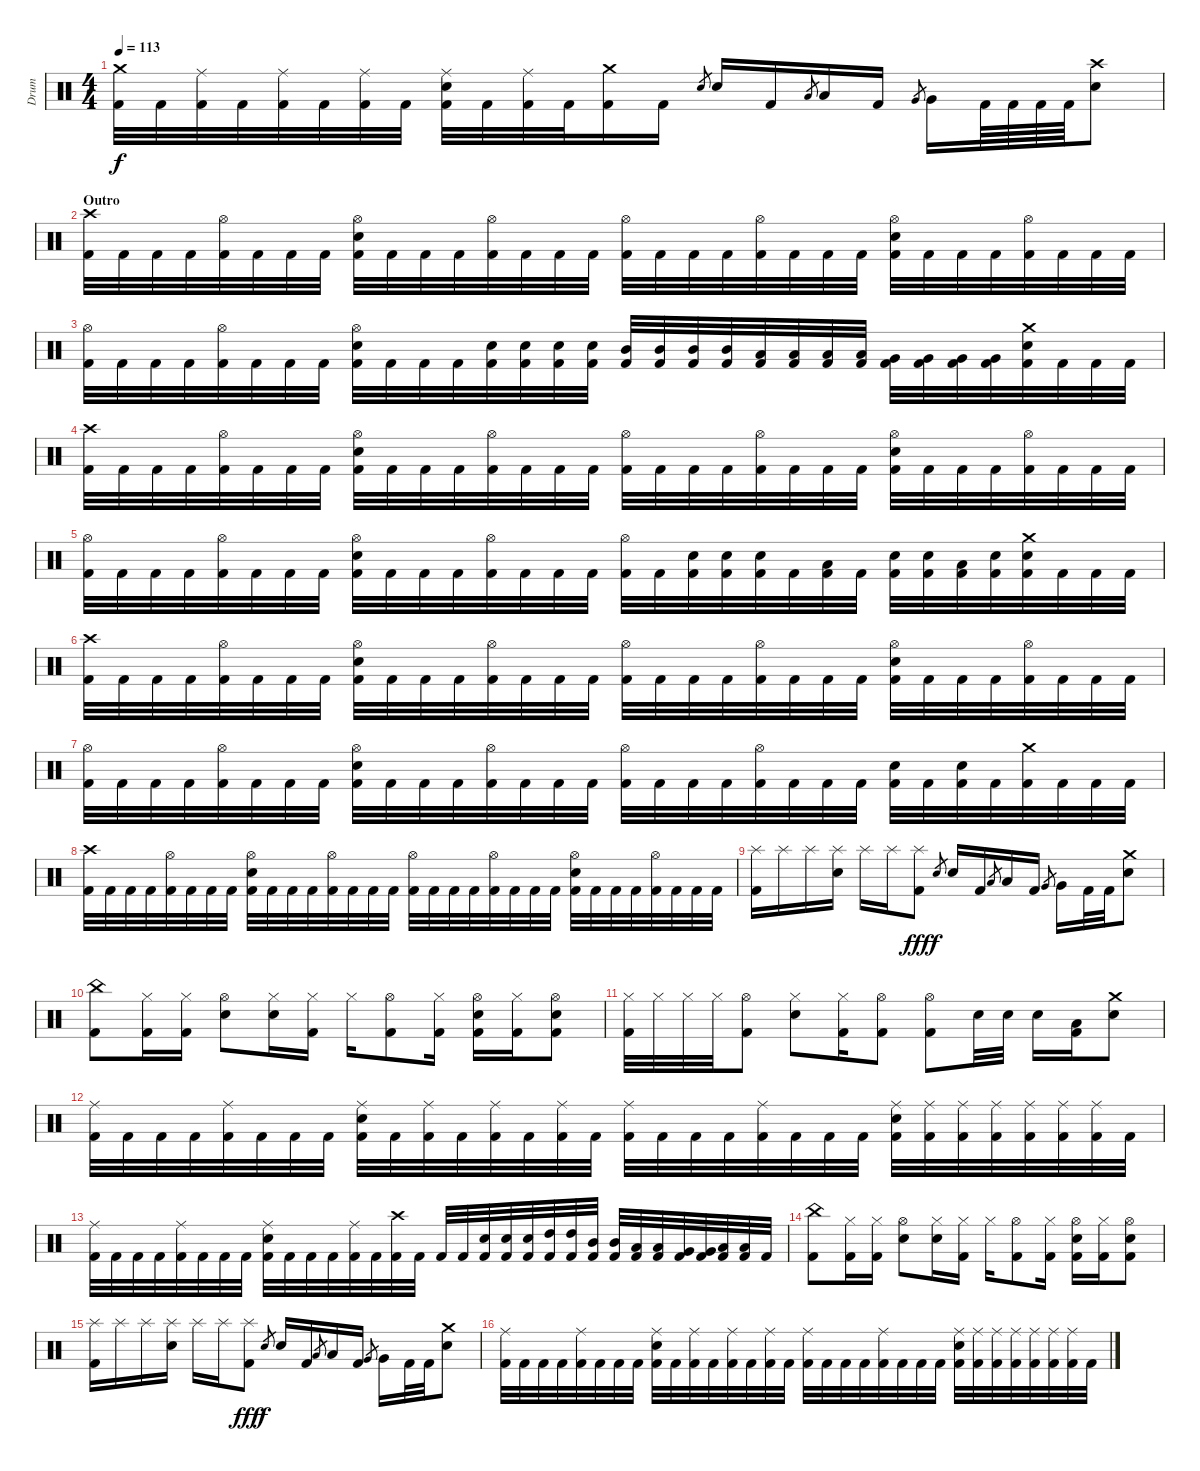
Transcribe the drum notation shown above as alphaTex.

\track ("Drum" "Drum") {instrument percussion}
\staff {score}
\articulation defaults
\ts (4 4)
\tempo 113
\clef neutral
\ks c
("Crash medium (hit)" "Kick (hit) 2").32{dy f} "Kick (hit) 2".32 ("Ride (middle)" "Kick (hit) 2").32 "Kick (hit) 2".32 ("Ride (middle)" "Kick (hit) 2").32 "Kick (hit) 2".32 ("Ride (middle)" "Kick (hit) 2").32 "Kick (hit) 2".32 ("Ride (middle)" "Electric Snare (hit)" "Kick (hit) 2").32 "Kick (hit) 2".32 ("Ride (middle)" "Kick (hit) 2").32 "Kick (hit) 2".32 ("Crash medium (hit)" "Kick (hit) 2").16 "Kick (hit) 2".16 "Electric Snare (hit)".8{gr} "Electric Snare (hit)".16 "Kick (hit) 2".16 "Low Tom (hit)".8{gr} "Low Tom (hit)".16 "Kick (hit) 2".16 "Very Low Tom (hit)".8{gr} "Very Low Tom (hit)".16 "Kick (hit) 2".64 "Kick (hit) 2".64 "Kick (hit) 2".64 "Kick (hit) 2".64 ("Crash high (hit)" "Electric Snare (hit)").8 |
\section ("" "Outro")
("Crash high (hit)" "Kick (hit) 2").32 "Kick (hit) 2".32 "Kick (hit) 2".32 "Kick (hit) 2".32 ("Hi-Hat (open)" "Kick (hit) 2").32 "Kick (hit) 2".32 "Kick (hit) 2".32 "Kick (hit) 2".32 ("Hi-Hat (open)" "Electric Snare (hit)" "Kick (hit) 2").32 "Kick (hit) 2".32 "Kick (hit) 2".32 "Kick (hit) 2".32 ("Hi-Hat (open)" "Kick (hit) 2").32 "Kick (hit) 2".32 "Kick (hit) 2".32 "Kick (hit) 2".32 ("Hi-Hat (open)" "Kick (hit) 2").32 "Kick (hit) 2".32 "Kick (hit) 2".32 "Kick (hit) 2".32 ("Hi-Hat (open)" "Kick (hit) 2").32 "Kick (hit) 2".32 "Kick (hit) 2".32 "Kick (hit) 2".32 ("Hi-Hat (open)" "Electric Snare (hit)" "Kick (hit) 2").32 "Kick (hit) 2".32 "Kick (hit) 2".32 "Kick (hit) 2".32 ("Hi-Hat (open)" "Kick (hit) 2").32 "Kick (hit) 2".32 "Kick (hit) 2".32 "Kick (hit) 2".32 |
("Hi-Hat (open)" "Kick (hit) 2").32 "Kick (hit) 2".32 "Kick (hit) 2".32 "Kick (hit) 2".32 ("Hi-Hat (open)" "Kick (hit) 2").32 "Kick (hit) 2".32 "Kick (hit) 2".32 "Kick (hit) 2".32 ("Hi-Hat (open)" "Electric Snare (hit)" "Kick (hit) 2").32 "Kick (hit) 2".32 "Kick (hit) 2".32 "Kick (hit) 2".32 ("Electric Snare (hit)" "Kick (hit) 2").32 ("Electric Snare (hit)" "Kick (hit) 2").32 ("Electric Snare (hit)" "Kick (hit) 2").32 ("Electric Snare (hit)" "Kick (hit) 2").32 ("Mid Tom (hit)" "Kick (hit) 2").32 ("Mid Tom (hit)" "Kick (hit) 2").32 ("Mid Tom (hit)" "Kick (hit) 2").32 ("Mid Tom (hit)" "Kick (hit) 2").32 ("Low Tom (hit)" "Kick (hit) 2").32 ("Low Tom (hit)" "Kick (hit) 2").32 ("Low Tom (hit)" "Kick (hit) 2").32 ("Low Tom (hit)" "Kick (hit) 2").32 ("Very Low Tom (hit)" "Kick (hit) 2").32 ("Very Low Tom (hit)" "Kick (hit) 2").32 ("Very Low Tom (hit)" "Kick (hit) 2").32 ("Very Low Tom (hit)" "Kick (hit) 2").32 ("Crash medium (hit)" "Electric Snare (hit)" "Kick (hit) 2").32 "Kick (hit) 2".32 "Kick (hit) 2".32 "Kick (hit) 2".32 |
("Crash high (hit)" "Kick (hit) 2").32 "Kick (hit) 2".32 "Kick (hit) 2".32 "Kick (hit) 2".32 ("Hi-Hat (open)" "Kick (hit) 2").32 "Kick (hit) 2".32 "Kick (hit) 2".32 "Kick (hit) 2".32 ("Hi-Hat (open)" "Electric Snare (hit)" "Kick (hit) 2").32 "Kick (hit) 2".32 "Kick (hit) 2".32 "Kick (hit) 2".32 ("Hi-Hat (open)" "Kick (hit) 2").32 "Kick (hit) 2".32 "Kick (hit) 2".32 "Kick (hit) 2".32 ("Hi-Hat (open)" "Kick (hit) 2").32 "Kick (hit) 2".32 "Kick (hit) 2".32 "Kick (hit) 2".32 ("Hi-Hat (open)" "Kick (hit) 2").32 "Kick (hit) 2".32 "Kick (hit) 2".32 "Kick (hit) 2".32 ("Hi-Hat (open)" "Electric Snare (hit)" "Kick (hit) 2").32 "Kick (hit) 2".32 "Kick (hit) 2".32 "Kick (hit) 2".32 ("Hi-Hat (open)" "Kick (hit) 2").32 "Kick (hit) 2".32 "Kick (hit) 2".32 "Kick (hit) 2".32 |
("Hi-Hat (open)" "Kick (hit) 2").32 "Kick (hit) 2".32 "Kick (hit) 2".32 "Kick (hit) 2".32 ("Hi-Hat (open)" "Kick (hit) 2").32 "Kick (hit) 2".32 "Kick (hit) 2".32 "Kick (hit) 2".32 ("Hi-Hat (open)" "Electric Snare (hit)" "Kick (hit) 2").32 "Kick (hit) 2".32 "Kick (hit) 2".32 "Kick (hit) 2".32 ("Hi-Hat (open)" "Kick (hit) 2").32 "Kick (hit) 2".32 "Kick (hit) 2".32 "Kick (hit) 2".32 ("Hi-Hat (open)" "Kick (hit) 2").32 "Kick (hit) 2".32 ("Electric Snare (hit)" "Kick (hit) 2").32 ("Electric Snare (hit)" "Kick (hit) 2").32 ("Electric Snare (hit)" "Kick (hit) 2").32 "Kick (hit) 2".32 ("Low Tom (hit)" "Kick (hit) 2").32 "Kick (hit) 2".32 ("Electric Snare (hit)" "Kick (hit) 2").32 ("Electric Snare (hit)" "Kick (hit) 2").32 ("Low Tom (hit)" "Kick (hit) 2").32 ("Electric Snare (hit)" "Kick (hit) 2").32 ("Crash medium (hit)" "Electric Snare (hit)" "Kick (hit) 2").32 "Kick (hit) 2".32 "Kick (hit) 2".32 "Kick (hit) 2".32 |
("Crash high (hit)" "Kick (hit) 2").32 "Kick (hit) 2".32 "Kick (hit) 2".32 "Kick (hit) 2".32 ("Hi-Hat (open)" "Kick (hit) 2").32 "Kick (hit) 2".32 "Kick (hit) 2".32 "Kick (hit) 2".32 ("Hi-Hat (open)" "Electric Snare (hit)" "Kick (hit) 2").32 "Kick (hit) 2".32 "Kick (hit) 2".32 "Kick (hit) 2".32 ("Hi-Hat (open)" "Kick (hit) 2").32 "Kick (hit) 2".32 "Kick (hit) 2".32 "Kick (hit) 2".32 ("Hi-Hat (open)" "Kick (hit) 2").32 "Kick (hit) 2".32 "Kick (hit) 2".32 "Kick (hit) 2".32 ("Hi-Hat (open)" "Kick (hit) 2").32 "Kick (hit) 2".32 "Kick (hit) 2".32 "Kick (hit) 2".32 ("Hi-Hat (open)" "Electric Snare (hit)" "Kick (hit) 2").32 "Kick (hit) 2".32 "Kick (hit) 2".32 "Kick (hit) 2".32 ("Hi-Hat (open)" "Kick (hit) 2").32 "Kick (hit) 2".32 "Kick (hit) 2".32 "Kick (hit) 2".32 |
("Hi-Hat (open)" "Kick (hit) 2").32 "Kick (hit) 2".32 "Kick (hit) 2".32 "Kick (hit) 2".32 ("Hi-Hat (open)" "Kick (hit) 2").32 "Kick (hit) 2".32 "Kick (hit) 2".32 "Kick (hit) 2".32 ("Hi-Hat (open)" "Electric Snare (hit)" "Kick (hit) 2").32 "Kick (hit) 2".32 "Kick (hit) 2".32 "Kick (hit) 2".32 ("Hi-Hat (open)" "Kick (hit) 2").32 "Kick (hit) 2".32 "Kick (hit) 2".32 "Kick (hit) 2".32 ("Hi-Hat (open)" "Kick (hit) 2").32 "Kick (hit) 2".32 "Kick (hit) 2".32 "Kick (hit) 2".32 ("Hi-Hat (open)" "Kick (hit) 2").32 "Kick (hit) 2".32 "Kick (hit) 2".32 "Kick (hit) 2".32 ("Electric Snare (hit)" "Kick (hit) 2").32 "Kick (hit) 2".32 ("Electric Snare (hit)" "Kick (hit) 2").32 "Kick (hit) 2".32 ("Crash medium (hit)" "Kick (hit) 2").32 "Kick (hit) 2".32 "Kick (hit) 2".32 "Kick (hit) 2".32 |
("Crash high (hit)" "Kick (hit) 2").32 "Kick (hit) 2".32 "Kick (hit) 2".32 "Kick (hit) 2".32 ("Hi-Hat (open)" "Kick (hit) 2").32 "Kick (hit) 2".32 "Kick (hit) 2".32 "Kick (hit) 2".32 ("Hi-Hat (open)" "Electric Snare (hit)" "Kick (hit) 2").32 "Kick (hit) 2".32 "Kick (hit) 2".32 "Kick (hit) 2".32 ("Hi-Hat (open)" "Kick (hit) 2").32 "Kick (hit) 2".32 "Kick (hit) 2".32 "Kick (hit) 2".32 ("Hi-Hat (open)" "Kick (hit) 2").32 "Kick (hit) 2".32 "Kick (hit) 2".32 "Kick (hit) 2".32 ("Hi-Hat (open)" "Kick (hit) 2").32 "Kick (hit) 2".32 "Kick (hit) 2".32 "Kick (hit) 2".32 ("Hi-Hat (open)" "Electric Snare (hit)" "Kick (hit) 2").32 "Kick (hit) 2".32 "Kick (hit) 2".32 "Kick (hit) 2".32 ("Hi-Hat (open)" "Kick (hit) 2").32 "Kick (hit) 2".32 "Kick (hit) 2".32 "Kick (hit) 2".32 |
("Splash (hit)" "Kick (hit) 2").16 "Splash (hit)".16 "Splash (hit)".16 ("Splash (hit)" "Electric Snare (hit)").16 "Splash (hit)".16 "Splash (hit)".16 ("Splash (hit)" "Kick (hit) 2").8{dy fff} "Electric Snare (hit)".8{gr dy f} "Electric Snare (hit)".16 "Kick (hit) 2".16 "Low Tom (hit)".8{gr} "Low Tom (hit)".16 "Kick (hit) 2".16 "Very Low Tom (hit)".8{gr} "Very Low Tom (hit)".16 "Kick (hit) 2".32 "Kick (hit) 2".32 ("Crash medium (hit)" "Electric Snare (hit)").8 |
("China (hit)" "Kick (hit) 2").8 ("Hi-Hat (closed)" "Kick (hit) 2").16 ("Hi-Hat (closed)" "Kick (hit) 2").16 ("Hi-Hat (open)" "Electric Snare (hit)").8 ("Hi-Hat (closed)" "Electric Snare (hit)").16 ("Hi-Hat (closed)" "Kick (hit) 2").16 "Hi-Hat (closed)".16 ("Hi-Hat (open)" "Kick (hit) 2").8 ("Hi-Hat (closed)" "Kick (hit) 2").16 ("Hi-Hat (open)" "Electric Snare (hit)" "Kick (hit) 2").16 ("Hi-Hat (closed)" "Kick (hit) 2").16 ("Hi-Hat (open)" "Electric Snare (hit)" "Kick (hit) 2").8 |
("Hi-Hat (closed)" "Kick (hit) 2").32 "Hi-Hat (closed)".32 "Hi-Hat (closed)".32 "Hi-Hat (closed)".32 ("Hi-Hat (open)" "Kick (hit) 2").8 ("Hi-Hat (closed)" "Electric Snare (hit)").8 ("Hi-Hat (closed)" "Kick (hit) 2").16 ("Hi-Hat (open)" "Kick (hit) 2").8 ("Hi-Hat (open)" "Kick (hit) 2").8 "Electric Snare (hit)".32 "Electric Snare (hit)".32 "Electric Snare (hit)".16 ("Low Tom (hit)" "Kick (hit) 2").16 ("Crash medium (hit)" "Electric Snare (hit)").8 |
("Ride (middle)" "Kick (hit) 2").32 "Kick (hit) 2".32 "Kick (hit) 2".32 "Kick (hit) 2".32 ("Ride (middle)" "Kick (hit) 2").32 "Kick (hit) 2".32 "Kick (hit) 2".32 "Kick (hit) 2".32 ("Ride (middle)" "Electric Snare (hit)" "Kick (hit) 2").32 "Kick (hit) 2".32 ("Ride (middle)" "Kick (hit) 2").32 "Kick (hit) 2".32 ("Ride (middle)" "Kick (hit) 2").32 "Kick (hit) 2".32 ("Ride (middle)" "Kick (hit) 2").32 "Kick (hit) 2".32 ("Ride (middle)" "Kick (hit) 2").32 "Kick (hit) 2".32 "Kick (hit) 2".32 "Kick (hit) 2".32 ("Ride (middle)" "Kick (hit) 2").32 "Kick (hit) 2".32 "Kick (hit) 2".32 "Kick (hit) 2".32 ("Ride (middle)" "Electric Snare (hit)" "Kick (hit) 2").32 ("Ride (middle)" "Kick (hit) 2").32 ("Ride (middle)" "Kick (hit) 2").32 ("Ride (middle)" "Kick (hit) 2").32 ("Ride (middle)" "Kick (hit) 2").32 ("Ride (middle)" "Kick (hit) 2").32 ("Ride (middle)" "Kick (hit) 2").32 "Kick (hit) 2".32 |
("Ride (middle)" "Kick (hit) 2").32 "Kick (hit) 2".32 "Kick (hit) 2".32 "Kick (hit) 2".32 ("Ride (middle)" "Kick (hit) 2").32 "Kick (hit) 2".32 "Kick (hit) 2".32 "Kick (hit) 2".32 ("Ride (middle)" "Electric Snare (hit)" "Kick (hit) 2").32 "Kick (hit) 2".32 "Kick (hit) 2".32 "Kick (hit) 2".32 ("Ride (middle)" "Kick (hit) 2").32 "Kick (hit) 2".32 ("Crash high (hit)" "Kick (hit) 2").32 "Kick (hit) 2".32 "Kick (hit) 2".32 "Kick (hit) 2".32 ("Electric Snare (hit)" "Kick (hit) 2").32 ("Electric Snare (hit)" "Kick (hit) 2").32 ("Electric Snare (hit)" "Kick (hit) 2").32 ("High Tom (hit)" "Kick (hit) 2").32 ("High Tom (hit)" "Kick (hit) 2").32 ("Mid Tom (hit)" "Kick (hit) 2").32 ("Mid Tom (hit)" "Kick (hit) 2").32 ("Low Tom (hit)" "Kick (hit) 2").32 ("Low Tom (hit)" "Kick (hit) 2").32 ("Very Low Tom (hit)" "Kick (hit) 2").32 ("Very Low Tom (hit)" "Kick (hit) 2").32 ("Low Floor Tom (hit)" "Kick (hit) 2").32 ("Low Floor Tom (hit)" "Kick (hit) 2").32 "Kick (hit) 2".32 |
("China (hit)" "Kick (hit) 2").8 ("Hi-Hat (closed)" "Kick (hit) 2").16 ("Hi-Hat (closed)" "Kick (hit) 2").16 ("Hi-Hat (open)" "Electric Snare (hit)").8 ("Hi-Hat (closed)" "Electric Snare (hit)").16 ("Hi-Hat (closed)" "Kick (hit) 2").16 "Hi-Hat (closed)".16 ("Hi-Hat (open)" "Kick (hit) 2").8 ("Hi-Hat (closed)" "Kick (hit) 2").16 ("Hi-Hat (open)" "Electric Snare (hit)" "Kick (hit) 2").16 ("Hi-Hat (closed)" "Kick (hit) 2").16 ("Hi-Hat (open)" "Electric Snare (hit)" "Kick (hit) 2").8 |
("Splash (hit)" "Kick (hit) 2").16 "Splash (hit)".16 "Splash (hit)".16 ("Splash (hit)" "Electric Snare (hit)").16 "Splash (hit)".16 "Splash (hit)".16 ("Splash (hit)" "Kick (hit) 2").8{dy fff} "Electric Snare (hit)".8{gr dy f} "Electric Snare (hit)".16 "Kick (hit) 2".16 "Low Tom (hit)".8{gr} "Low Tom (hit)".16 "Kick (hit) 2".16 "Very Low Tom (hit)".8{gr} "Very Low Tom (hit)".16 "Kick (hit) 2".32 "Kick (hit) 2".32 ("Crash medium (hit)" "Electric Snare (hit)").8 |
("Ride (middle)" "Kick (hit) 2").32 "Kick (hit) 2".32 "Kick (hit) 2".32 "Kick (hit) 2".32 ("Ride (middle)" "Kick (hit) 2").32 "Kick (hit) 2".32 "Kick (hit) 2".32 "Kick (hit) 2".32 ("Ride (middle)" "Electric Snare (hit)" "Kick (hit) 2").32 "Kick (hit) 2".32 ("Ride (middle)" "Kick (hit) 2").32 "Kick (hit) 2".32 ("Ride (middle)" "Kick (hit) 2").32 "Kick (hit) 2".32 ("Ride (middle)" "Kick (hit) 2").32 "Kick (hit) 2".32 ("Ride (middle)" "Kick (hit) 2").32 "Kick (hit) 2".32 "Kick (hit) 2".32 "Kick (hit) 2".32 ("Ride (middle)" "Kick (hit) 2").32 "Kick (hit) 2".32 "Kick (hit) 2".32 "Kick (hit) 2".32 ("Ride (middle)" "Electric Snare (hit)" "Kick (hit) 2").32 ("Ride (middle)" "Kick (hit) 2").32 ("Ride (middle)" "Kick (hit) 2").32 ("Ride (middle)" "Kick (hit) 2").32 ("Ride (middle)" "Kick (hit) 2").32 ("Ride (middle)" "Kick (hit) 2").32 ("Ride (middle)" "Kick (hit) 2").32 "Kick (hit) 2".32
